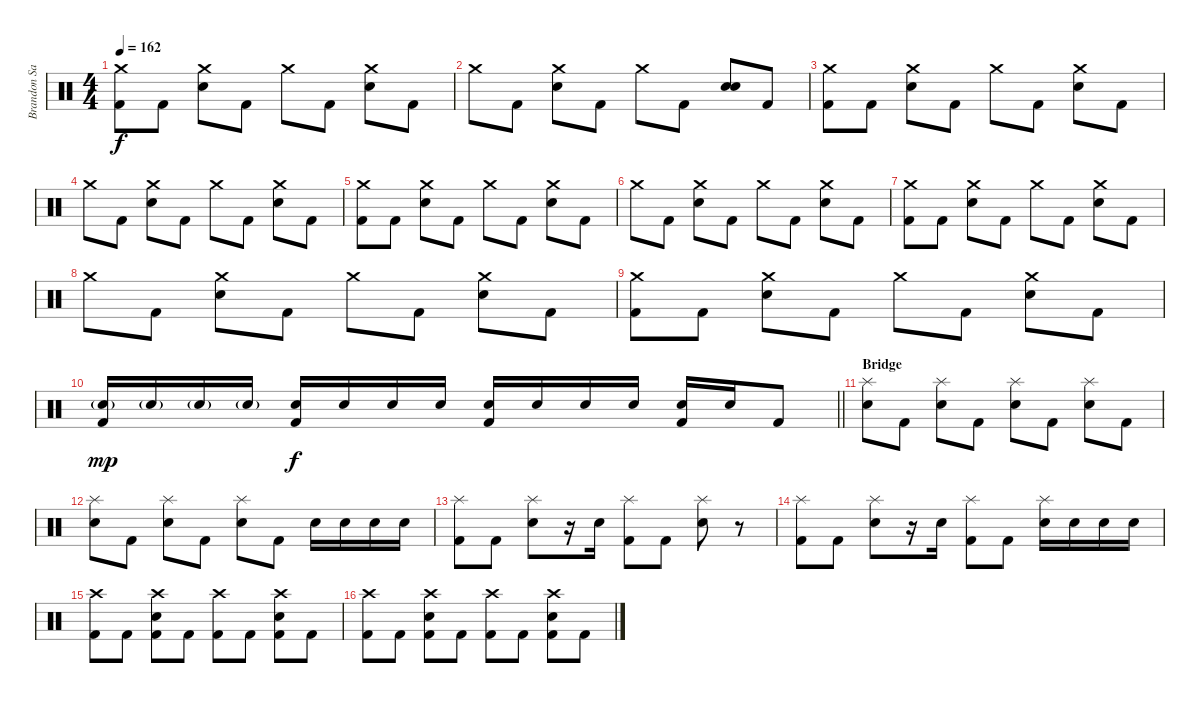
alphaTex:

\track ("Brandon Saller" "Brandon Sa") {instrument percussion}
\staff {score}
\articulation defaults
\ts (4 4)
\tempo 162
\clef neutral
\ks c
("Crash medium (hit)" "Kick (hit) 2").8{dy f} "Kick (hit) 2".8 ("Crash medium (hit)" "Electric Snare (hit)").8 "Kick (hit) 2".8 "Crash medium (hit)".8 "Kick (hit) 2".8 ("Crash medium (hit)" "Electric Snare (hit)").8 "Kick (hit) 2".8 |
"Crash medium (hit)".8 "Kick (hit) 2".8 ("Crash medium (hit)" "Electric Snare (hit)").8 "Kick (hit) 2".8 "Crash medium (hit)".8 "Kick (hit) 2".8 ("Electric Snare (hit)" "Electric Snare (hit)").8{bd 60} "Kick (hit) 2".8 |
("Crash medium (hit)" "Kick (hit) 2").8 "Kick (hit) 2".8 ("Crash medium (hit)" "Electric Snare (hit)").8 "Kick (hit) 2".8 "Crash medium (hit)".8 "Kick (hit) 2".8 ("Crash medium (hit)" "Electric Snare (hit)").8 "Kick (hit) 2".8 |
"Crash medium (hit)".8 "Kick (hit) 2".8 ("Crash medium (hit)" "Electric Snare (hit)").8 "Kick (hit) 2".8 "Crash medium (hit)".8 "Kick (hit) 2".8 ("Crash medium (hit)" "Electric Snare (hit)").8 "Kick (hit) 2".8 |
("Crash medium (hit)" "Kick (hit) 2").8 "Kick (hit) 2".8 ("Crash medium (hit)" "Electric Snare (hit)").8 "Kick (hit) 2".8 "Crash medium (hit)".8 "Kick (hit) 2".8 ("Crash medium (hit)" "Electric Snare (hit)").8 "Kick (hit) 2".8 |
"Crash medium (hit)".8 "Kick (hit) 2".8 ("Crash medium (hit)" "Electric Snare (hit)").8 "Kick (hit) 2".8 "Crash medium (hit)".8 "Kick (hit) 2".8 ("Crash medium (hit)" "Electric Snare (hit)").8 "Kick (hit) 2".8 |
("Crash medium (hit)" "Kick (hit) 2").8 "Kick (hit) 2".8 ("Crash medium (hit)" "Electric Snare (hit)").8 "Kick (hit) 2".8 "Crash medium (hit)".8 "Kick (hit) 2".8 ("Crash medium (hit)" "Electric Snare (hit)").8 "Kick (hit) 2".8 |
"Crash medium (hit)".8 "Kick (hit) 2".8 ("Crash medium (hit)" "Electric Snare (hit)").8 "Kick (hit) 2".8 "Crash medium (hit)".8 "Kick (hit) 2".8 ("Crash medium (hit)" "Electric Snare (hit)").8 "Kick (hit) 2".8 |
("Crash medium (hit)" "Kick (hit) 2").8 "Kick (hit) 2".8 ("Crash medium (hit)" "Electric Snare (hit)").8 "Kick (hit) 2".8 "Crash medium (hit)".8 "Kick (hit) 2".8 ("Crash medium (hit)" "Electric Snare (hit)").8 "Kick (hit) 2".8 |
\barLineRight lightlight
("Electric Snare (hit)"{g} "Kick (hit) 2").16{dy mp} "Electric Snare (hit)"{g}.16 "Electric Snare (hit)"{g}.16 "Electric Snare (hit)"{g}.16 ("Electric Snare (hit)" "Kick (hit) 2").16{dy f} "Electric Snare (hit)".16 "Electric Snare (hit)".16 "Electric Snare (hit)".16 ("Electric Snare (hit)" "Kick (hit) 2").16 "Electric Snare (hit)".16 "Electric Snare (hit)".16 "Electric Snare (hit)".16 ("Electric Snare (hit)" "Kick (hit) 2").16 "Electric Snare (hit)".16 "Kick (hit) 2".8 |
\section ("" "Bridge")
("Splash (hit)" "Electric Snare (hit)").8 "Kick (hit) 2".8 ("Splash (hit)" "Electric Snare (hit)").8 "Kick (hit) 2".8 ("Splash (hit)" "Electric Snare (hit)").8 "Kick (hit) 2".8 ("Splash (hit)" "Electric Snare (hit)").8 "Kick (hit) 2".8 |
("Splash (hit)" "Electric Snare (hit)").8 "Kick (hit) 2".8 ("Splash (hit)" "Electric Snare (hit)").8 "Kick (hit) 2".8 ("Splash (hit)" "Electric Snare (hit)").8 "Kick (hit) 2".8 "Electric Snare (hit)".16 "Electric Snare (hit)".16 "Electric Snare (hit)".16 "Electric Snare (hit)".16 |
("Splash (hit)" "Kick (hit) 2").8 "Kick (hit) 2".8 ("Splash (hit)" "Electric Snare (hit)").8 r.16 "Electric Snare (hit)".16 ("Splash (hit)" "Kick (hit) 2").8 "Kick (hit) 2".8 ("Splash (hit)" "Electric Snare (hit)").8 r.8 |
("Splash (hit)" "Kick (hit) 2").8 "Kick (hit) 2".8 ("Splash (hit)" "Electric Snare (hit)").8 r.16 "Electric Snare (hit)".16 ("Splash (hit)" "Kick (hit) 2").8 "Kick (hit) 2".8 ("Splash (hit)" "Electric Snare (hit)").16 "Electric Snare (hit)".16 "Electric Snare (hit)".16 "Electric Snare (hit)".16 |
("Crash high (hit)" "Kick (hit) 2").8 "Kick (hit) 2".8 ("Crash high (hit)" "Electric Snare (hit)" "Kick (hit) 2").8 "Kick (hit) 2".8 ("Crash high (hit)" "Kick (hit) 2").8 "Kick (hit) 2".8 ("Crash high (hit)" "Electric Snare (hit)" "Kick (hit) 2").8 "Kick (hit) 2".8 |
("Crash high (hit)" "Kick (hit) 2").8 "Kick (hit) 2".8 ("Crash high (hit)" "Electric Snare (hit)" "Kick (hit) 2").8 "Kick (hit) 2".8 ("Crash high (hit)" "Kick (hit) 2").8 "Kick (hit) 2".8 ("Crash high (hit)" "Electric Snare (hit)" "Kick (hit) 2").8 "Kick (hit) 2".8
